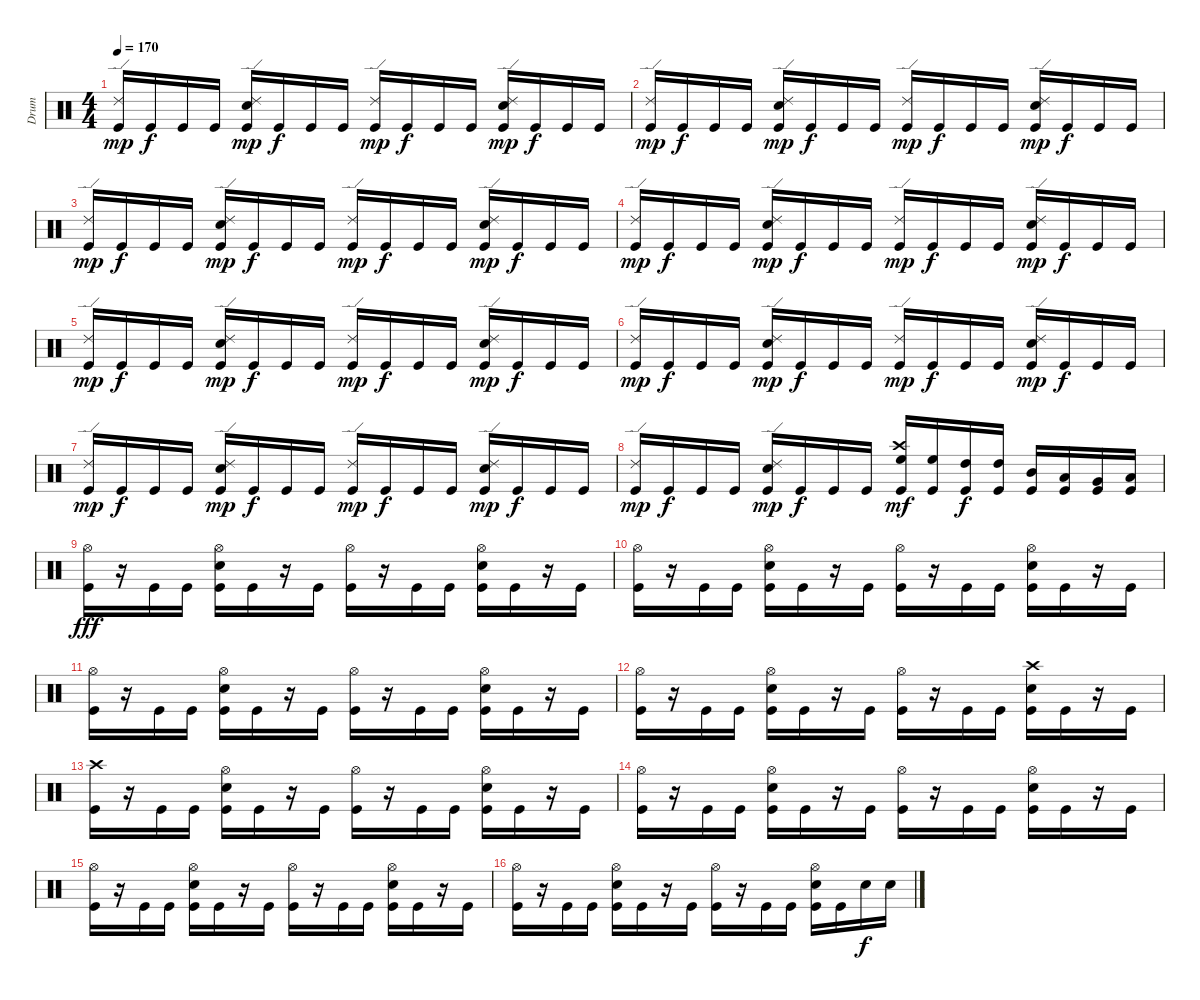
\track ("Drum" "Drum") {instrument percussion}
\staff {score}
\articulation defaults
\ts (4 4)
\tempo 170
\clef neutral
\ks c
("Ride (edge) 2" "Kick (hit)").16{dy mp} "Kick (hit)".16{dy f} "Kick (hit)".16 "Kick (hit)".16 ("Ride (edge) 2" "Snare (hit) 2" "Kick (hit)").16{dy mp} "Kick (hit)".16{dy f} "Kick (hit)".16 "Kick (hit)".16 ("Ride (edge) 2" "Kick (hit)").16{dy mp} "Kick (hit)".16{dy f} "Kick (hit)".16 "Kick (hit)".16 ("Ride (edge) 2" "Snare (hit) 2" "Kick (hit)").16{dy mp} "Kick (hit)".16{dy f} "Kick (hit)".16 "Kick (hit)".16 |
("Ride (edge) 2" "Kick (hit)").16{dy mp} "Kick (hit)".16{dy f} "Kick (hit)".16 "Kick (hit)".16 ("Ride (edge) 2" "Snare (hit) 2" "Kick (hit)").16{dy mp} "Kick (hit)".16{dy f} "Kick (hit)".16 "Kick (hit)".16 ("Ride (edge) 2" "Kick (hit)").16{dy mp} "Kick (hit)".16{dy f} "Kick (hit)".16 "Kick (hit)".16 ("Ride (edge) 2" "Snare (hit) 2" "Kick (hit)").16{dy mp} "Kick (hit)".16{dy f} "Kick (hit)".16 "Kick (hit)".16 |
("Ride (edge) 2" "Kick (hit)").16{dy mp} "Kick (hit)".16{dy f} "Kick (hit)".16 "Kick (hit)".16 ("Ride (edge) 2" "Snare (hit) 2" "Kick (hit)").16{dy mp} "Kick (hit)".16{dy f} "Kick (hit)".16 "Kick (hit)".16 ("Ride (edge) 2" "Kick (hit)").16{dy mp} "Kick (hit)".16{dy f} "Kick (hit)".16 "Kick (hit)".16 ("Ride (edge) 2" "Snare (hit) 2" "Kick (hit)").16{dy mp} "Kick (hit)".16{dy f} "Kick (hit)".16 "Kick (hit)".16 |
("Ride (edge) 2" "Kick (hit)").16{dy mp} "Kick (hit)".16{dy f} "Kick (hit)".16 "Kick (hit)".16 ("Ride (edge) 2" "Snare (hit) 2" "Kick (hit)").16{dy mp} "Kick (hit)".16{dy f} "Kick (hit)".16 "Kick (hit)".16 ("Ride (edge) 2" "Kick (hit)").16{dy mp} "Kick (hit)".16{dy f} "Kick (hit)".16 "Kick (hit)".16 ("Ride (edge) 2" "Snare (hit) 2" "Kick (hit)").16{dy mp} "Kick (hit)".16{dy f} "Kick (hit)".16 "Kick (hit)".16 |
("Ride (edge) 2" "Kick (hit)").16{dy mp} "Kick (hit)".16{dy f} "Kick (hit)".16 "Kick (hit)".16 ("Ride (edge) 2" "Snare (hit) 2" "Kick (hit)").16{dy mp} "Kick (hit)".16{dy f} "Kick (hit)".16 "Kick (hit)".16 ("Ride (edge) 2" "Kick (hit)").16{dy mp} "Kick (hit)".16{dy f} "Kick (hit)".16 "Kick (hit)".16 ("Ride (edge) 2" "Snare (hit) 2" "Kick (hit)").16{dy mp} "Kick (hit)".16{dy f} "Kick (hit)".16 "Kick (hit)".16 |
("Ride (edge) 2" "Kick (hit)").16{dy mp} "Kick (hit)".16{dy f} "Kick (hit)".16 "Kick (hit)".16 ("Ride (edge) 2" "Snare (hit) 2" "Kick (hit)").16{dy mp} "Kick (hit)".16{dy f} "Kick (hit)".16 "Kick (hit)".16 ("Ride (edge) 2" "Kick (hit)").16{dy mp} "Kick (hit)".16{dy f} "Kick (hit)".16 "Kick (hit)".16 ("Ride (edge) 2" "Snare (hit) 2" "Kick (hit)").16{dy mp} "Kick (hit)".16{dy f} "Kick (hit)".16 "Kick (hit)".16 |
("Ride (edge) 2" "Kick (hit)").16{dy mp} "Kick (hit)".16{dy f} "Kick (hit)".16 "Kick (hit)".16 ("Ride (edge) 2" "Snare (hit) 2" "Kick (hit)").16{dy mp} "Kick (hit)".16{dy f} "Kick (hit)".16 "Kick (hit)".16 ("Ride (edge) 2" "Kick (hit)").16{dy mp} "Kick (hit)".16{dy f} "Kick (hit)".16 "Kick (hit)".16 ("Ride (edge) 2" "Snare (hit) 2" "Kick (hit)").16{dy mp} "Kick (hit)".16{dy f} "Kick (hit)".16 "Kick (hit)".16 |
("Ride (edge) 2" "Kick (hit)").16{dy mp} "Kick (hit)".16{dy f} "Kick (hit)".16 "Kick (hit)".16 ("Ride (edge) 2" "Snare (hit) 2" "Kick (hit)").16{dy mp} "Kick (hit)".16{dy f} "Kick (hit)".16 "Kick (hit)".16 ("Crash high (hit)" "High Floor Tom (hit)" "Kick (hit)").16{dy mf} ("High Floor Tom (hit)" "Kick (hit)").16 ("High Tom (hit)" "Kick (hit)").16{dy f} ("High Tom (hit)" "Kick (hit)").16 ("Mid Tom (hit)" "Kick (hit)").16 ("Low Tom (hit)" "Kick (hit)").16 ("Very Low Tom (hit)" "Kick (hit)").16 ("Low Floor Tom (hit)" "Kick (hit)").16 |
("Hi-Hat (open)" "Kick (hit)").16{dy fff} r.16 "Kick (hit)".16 "Kick (hit)".16 ("Hi-Hat (open)" "Snare (hit) 2" "Kick (hit)").16 "Kick (hit)".16 r.16 "Kick (hit)".16 ("Hi-Hat (open)" "Kick (hit)").16 r.16 "Kick (hit)".16 "Kick (hit)".16 ("Hi-Hat (open)" "Snare (hit) 2" "Kick (hit)").16 "Kick (hit)".16 r.16 "Kick (hit)".16 |
("Hi-Hat (open)" "Kick (hit)").16 r.16 "Kick (hit)".16 "Kick (hit)".16 ("Hi-Hat (open)" "Snare (hit) 2" "Kick (hit)").16 "Kick (hit)".16 r.16 "Kick (hit)".16 ("Hi-Hat (open)" "Kick (hit)").16 r.16 "Kick (hit)".16 "Kick (hit)".16 ("Hi-Hat (open)" "Snare (hit) 2" "Kick (hit)").16 "Kick (hit)".16 r.16 "Kick (hit)".16 |
("Hi-Hat (open)" "Kick (hit)").16 r.16 "Kick (hit)".16 "Kick (hit)".16 ("Hi-Hat (open)" "Snare (hit) 2" "Kick (hit)").16 "Kick (hit)".16 r.16 "Kick (hit)".16 ("Hi-Hat (open)" "Kick (hit)").16 r.16 "Kick (hit)".16 "Kick (hit)".16 ("Hi-Hat (open)" "Snare (hit) 2" "Kick (hit)").16 "Kick (hit)".16 r.16 "Kick (hit)".16 |
("Hi-Hat (open)" "Kick (hit)").16 r.16 "Kick (hit)".16 "Kick (hit)".16 ("Hi-Hat (open)" "Snare (hit) 2" "Kick (hit)").16 "Kick (hit)".16 r.16 "Kick (hit)".16 ("Hi-Hat (open)" "Kick (hit)").16 r.16 "Kick (hit)".16 "Kick (hit)".16 ("Crash high (hit)" "Snare (hit) 2" "Kick (hit)").16 "Kick (hit)".16 r.16 "Kick (hit)".16 |
("Crash high (hit)" "Kick (hit)").16 r.16 "Kick (hit)".16 "Kick (hit)".16 ("Hi-Hat (open)" "Snare (hit) 2" "Kick (hit)").16 "Kick (hit)".16 r.16 "Kick (hit)".16 ("Hi-Hat (open)" "Kick (hit)").16 r.16 "Kick (hit)".16 "Kick (hit)".16 ("Hi-Hat (open)" "Snare (hit) 2" "Kick (hit)").16 "Kick (hit)".16 r.16 "Kick (hit)".16 |
("Hi-Hat (open)" "Kick (hit)").16 r.16 "Kick (hit)".16 "Kick (hit)".16 ("Hi-Hat (open)" "Snare (hit) 2" "Kick (hit)").16 "Kick (hit)".16 r.16 "Kick (hit)".16 ("Hi-Hat (open)" "Kick (hit)").16 r.16 "Kick (hit)".16 "Kick (hit)".16 ("Hi-Hat (open)" "Snare (hit) 2" "Kick (hit)").16 "Kick (hit)".16 r.16 "Kick (hit)".16 |
("Hi-Hat (open)" "Kick (hit)").16 r.16 "Kick (hit)".16 "Kick (hit)".16 ("Hi-Hat (open)" "Snare (hit) 2" "Kick (hit)").16 "Kick (hit)".16 r.16 "Kick (hit)".16 ("Hi-Hat (open)" "Kick (hit)").16 r.16 "Kick (hit)".16 "Kick (hit)".16 ("Hi-Hat (open)" "Snare (hit) 2" "Kick (hit)").16 "Kick (hit)".16 r.16 "Kick (hit)".16 |
("Hi-Hat (open)" "Kick (hit)").16 r.16 "Kick (hit)".16 "Kick (hit)".16 ("Hi-Hat (open)" "Snare (hit) 2" "Kick (hit)").16 "Kick (hit)".16 r.16 "Kick (hit)".16 ("Hi-Hat (open)" "Kick (hit)").16 r.16 "Kick (hit)".16 "Kick (hit)".16 ("Hi-Hat (open)" "Snare (hit) 2" "Kick (hit)").16 "Kick (hit)".16 "Snare (hit) 2".16{dy f} "Snare (hit) 2".16
